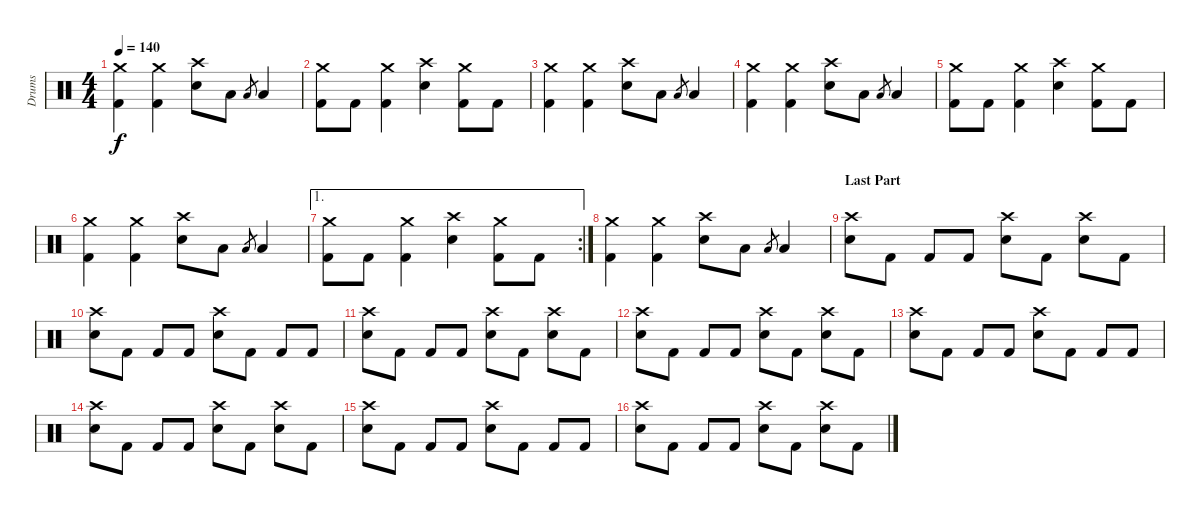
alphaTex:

\track ("Drums" "Drums") {instrument percussion}
\staff {score}
\articulation defaults
\ts (4 4)
\tempo 140
\clef neutral
\ks c
("Crash medium (hit)" "Kick (hit) 2").4{dy f} ("Crash medium (hit)" "Kick (hit) 2").4 ("Crash high (hit)" "Electric Snare (hit)").8 "Low Tom (hit)".8 "Low Tom (hit)".8{gr} "Low Tom (hit)".4 |
("Crash medium (hit)" "Kick (hit) 2").8 "Kick (hit) 2".8 ("Crash medium (hit)" "Kick (hit) 2").4 ("Crash high (hit)" "Electric Snare (hit)").4 ("Crash medium (hit)" "Kick (hit) 2").8 "Kick (hit) 2".8 |
("Crash medium (hit)" "Kick (hit) 2").4 ("Crash medium (hit)" "Kick (hit) 2").4 ("Crash high (hit)" "Electric Snare (hit)").8 "Low Tom (hit)".8 "Low Tom (hit)".8{gr} "Low Tom (hit)".4 |
("Crash medium (hit)" "Kick (hit) 2").4 ("Crash medium (hit)" "Kick (hit) 2").4 ("Crash high (hit)" "Electric Snare (hit)").8 "Low Tom (hit)".8 "Low Tom (hit)".8{gr} "Low Tom (hit)".4 |
("Crash medium (hit)" "Kick (hit) 2").8 "Kick (hit) 2".8 ("Crash medium (hit)" "Kick (hit) 2").4 ("Crash high (hit)" "Electric Snare (hit)").4 ("Crash medium (hit)" "Kick (hit) 2").8 "Kick (hit) 2".8 |
("Crash medium (hit)" "Kick (hit) 2").4 ("Crash medium (hit)" "Kick (hit) 2").4 ("Crash high (hit)" "Electric Snare (hit)").8 "Low Tom (hit)".8 "Low Tom (hit)".8{gr} "Low Tom (hit)".4 |
\ae 1
\rc 2
("Crash medium (hit)" "Kick (hit) 2").8 "Kick (hit) 2".8 ("Crash medium (hit)" "Kick (hit) 2").4 ("Crash high (hit)" "Electric Snare (hit)").4 ("Crash medium (hit)" "Kick (hit) 2").8 "Kick (hit) 2".8 |
("Crash medium (hit)" "Kick (hit) 2").4 ("Crash medium (hit)" "Kick (hit) 2").4 ("Crash high (hit)" "Electric Snare (hit)").8 "Low Tom (hit)".8 "Low Tom (hit)".8{gr} "Low Tom (hit)".4 |
\section ("" "Last Part")
("Crash high (hit)" "Electric Snare (hit)").8 "Kick (hit) 2".8 "Kick (hit) 2".8 "Kick (hit) 2".8 ("Crash high (hit)" "Electric Snare (hit)").8 "Kick (hit) 2".8 ("Crash high (hit)" "Electric Snare (hit)").8 "Kick (hit) 2".8 |
("Crash high (hit)" "Electric Snare (hit)").8 "Kick (hit) 2".8 "Kick (hit) 2".8 "Kick (hit) 2".8 ("Crash high (hit)" "Electric Snare (hit)").8 "Kick (hit) 2".8 "Kick (hit) 2".8 "Kick (hit) 2".8 |
("Crash high (hit)" "Electric Snare (hit)").8 "Kick (hit) 2".8 "Kick (hit) 2".8 "Kick (hit) 2".8 ("Crash high (hit)" "Electric Snare (hit)").8 "Kick (hit) 2".8 ("Crash high (hit)" "Electric Snare (hit)").8 "Kick (hit) 2".8 |
("Crash high (hit)" "Electric Snare (hit)").8 "Kick (hit) 2".8 "Kick (hit) 2".8 "Kick (hit) 2".8 ("Crash high (hit)" "Electric Snare (hit)").8 "Kick (hit) 2".8 ("Crash high (hit)" "Electric Snare (hit)").8 "Kick (hit) 2".8 |
("Crash high (hit)" "Electric Snare (hit)").8 "Kick (hit) 2".8 "Kick (hit) 2".8 "Kick (hit) 2".8 ("Crash high (hit)" "Electric Snare (hit)").8 "Kick (hit) 2".8 "Kick (hit) 2".8 "Kick (hit) 2".8 |
("Crash high (hit)" "Electric Snare (hit)").8 "Kick (hit) 2".8 "Kick (hit) 2".8 "Kick (hit) 2".8 ("Crash high (hit)" "Electric Snare (hit)").8 "Kick (hit) 2".8 ("Crash high (hit)" "Electric Snare (hit)").8 "Kick (hit) 2".8 |
("Crash high (hit)" "Electric Snare (hit)").8 "Kick (hit) 2".8 "Kick (hit) 2".8 "Kick (hit) 2".8 ("Crash high (hit)" "Electric Snare (hit)").8 "Kick (hit) 2".8 "Kick (hit) 2".8 "Kick (hit) 2".8 |
("Crash high (hit)" "Electric Snare (hit)").8 "Kick (hit) 2".8 "Kick (hit) 2".8 "Kick (hit) 2".8 ("Crash high (hit)" "Electric Snare (hit)").8 "Kick (hit) 2".8 ("Crash high (hit)" "Electric Snare (hit)").8 "Kick (hit) 2".8
